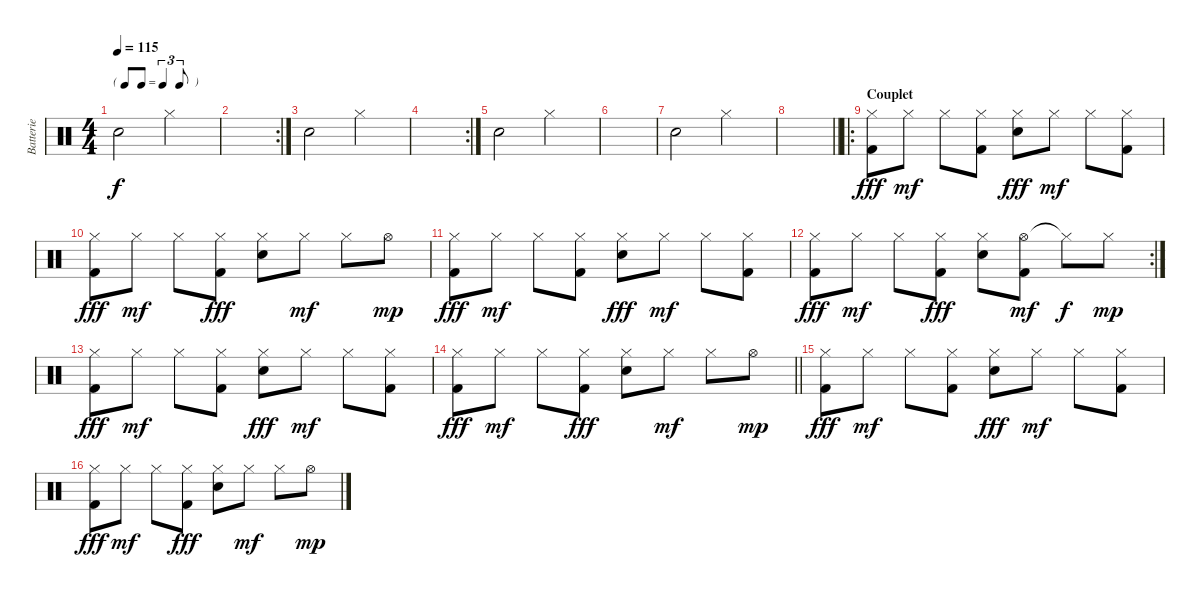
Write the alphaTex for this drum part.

\track ("Batterie" "Batterie") {instrument percussion}
\staff {score}
\articulation defaults
\ts (4 4)
\tf triplet8th
\tempo 115
\clef neutral
\ks c "Snare (hit) 2".2{dy f} "Hi-Hat (closed)".2
|
\rc 2
|
"Snare (hit) 2".2 "Hi-Hat (closed)".2 |
\rc 2
|
"Snare (hit) 2".2 "Hi-Hat (closed)".2 |
|
"Snare (hit) 2".2 "Hi-Hat (closed)".2 |
\barLineRight lightlight
|
\ro
\section ("" "Couplet")
("Hi-Hat (closed)" "Kick (hit) 2").8{dy fff} "Hi-Hat (closed)".8{dy mf} "Hi-Hat (closed)".8 ("Hi-Hat (closed)" "Kick (hit) 2").8 ("Hi-Hat (closed)" "Electric Snare (hit)").8{dy fff} "Hi-Hat (closed)".8{dy mf} "Hi-Hat (closed)".8 ("Hi-Hat (closed)" "Kick (hit) 2").8 |
("Hi-Hat (closed)" "Kick (hit) 2").8{dy fff} "Hi-Hat (closed)".8{dy mf} "Hi-Hat (closed)".8 ("Hi-Hat (closed)" "Kick (hit) 2").8{dy fff} ("Hi-Hat (closed)" "Electric Snare (hit)").8 "Hi-Hat (closed)".8{dy mf} "Hi-Hat (closed)".8 "Hi-Hat (open)".8{dy mp} |
("Hi-Hat (closed)" "Kick (hit) 2").8{dy fff} "Hi-Hat (closed)".8{dy mf} "Hi-Hat (closed)".8 ("Hi-Hat (closed)" "Kick (hit) 2").8 ("Hi-Hat (closed)" "Electric Snare (hit)").8{dy fff} "Hi-Hat (closed)".8{dy mf} "Hi-Hat (closed)".8 ("Hi-Hat (closed)" "Kick (hit) 2").8 |
\rc 2
("Hi-Hat (closed)" "Kick (hit) 2").8{dy fff} "Hi-Hat (closed)".8{dy mf} "Hi-Hat (closed)".8 ("Hi-Hat (closed)" "Kick (hit) 2").8{dy fff} ("Hi-Hat (closed)" "Electric Snare (hit)").8 ("Hi-Hat (open)" "Kick (hit) 2").8{dy mf} "Hi-Hat (closed)"{t}.8{dy f} "Hi-Hat (closed)".8{dy mp} |
("Hi-Hat (closed)" "Kick (hit) 2").8{dy fff} "Hi-Hat (closed)".8{dy mf} "Hi-Hat (closed)".8 ("Hi-Hat (closed)" "Kick (hit) 2").8 ("Hi-Hat (closed)" "Electric Snare (hit)").8{dy fff} "Hi-Hat (closed)".8{dy mf} "Hi-Hat (closed)".8 ("Hi-Hat (closed)" "Kick (hit) 2").8 |
\barLineRight lightlight
("Hi-Hat (closed)" "Kick (hit) 2").8{dy fff} "Hi-Hat (closed)".8{dy mf} "Hi-Hat (closed)".8 ("Hi-Hat (closed)" "Kick (hit) 2").8{dy fff} ("Hi-Hat (closed)" "Electric Snare (hit)").8 "Hi-Hat (closed)".8{dy mf} "Hi-Hat (closed)".8 "Hi-Hat (open)".8{dy mp} |
("Hi-Hat (closed)" "Kick (hit) 2").8{dy fff} "Hi-Hat (closed)".8{dy mf} "Hi-Hat (closed)".8 ("Hi-Hat (closed)" "Kick (hit) 2").8 ("Hi-Hat (closed)" "Electric Snare (hit)").8{dy fff} "Hi-Hat (closed)".8{dy mf} "Hi-Hat (closed)".8 ("Hi-Hat (closed)" "Kick (hit) 2").8 |
("Hi-Hat (closed)" "Kick (hit) 2").8{dy fff} "Hi-Hat (closed)".8{dy mf} "Hi-Hat (closed)".8 ("Hi-Hat (closed)" "Kick (hit) 2").8{dy fff} ("Hi-Hat (closed)" "Electric Snare (hit)").8 "Hi-Hat (closed)".8{dy mf} "Hi-Hat (closed)".8 "Hi-Hat (open)".8{dy mp}
